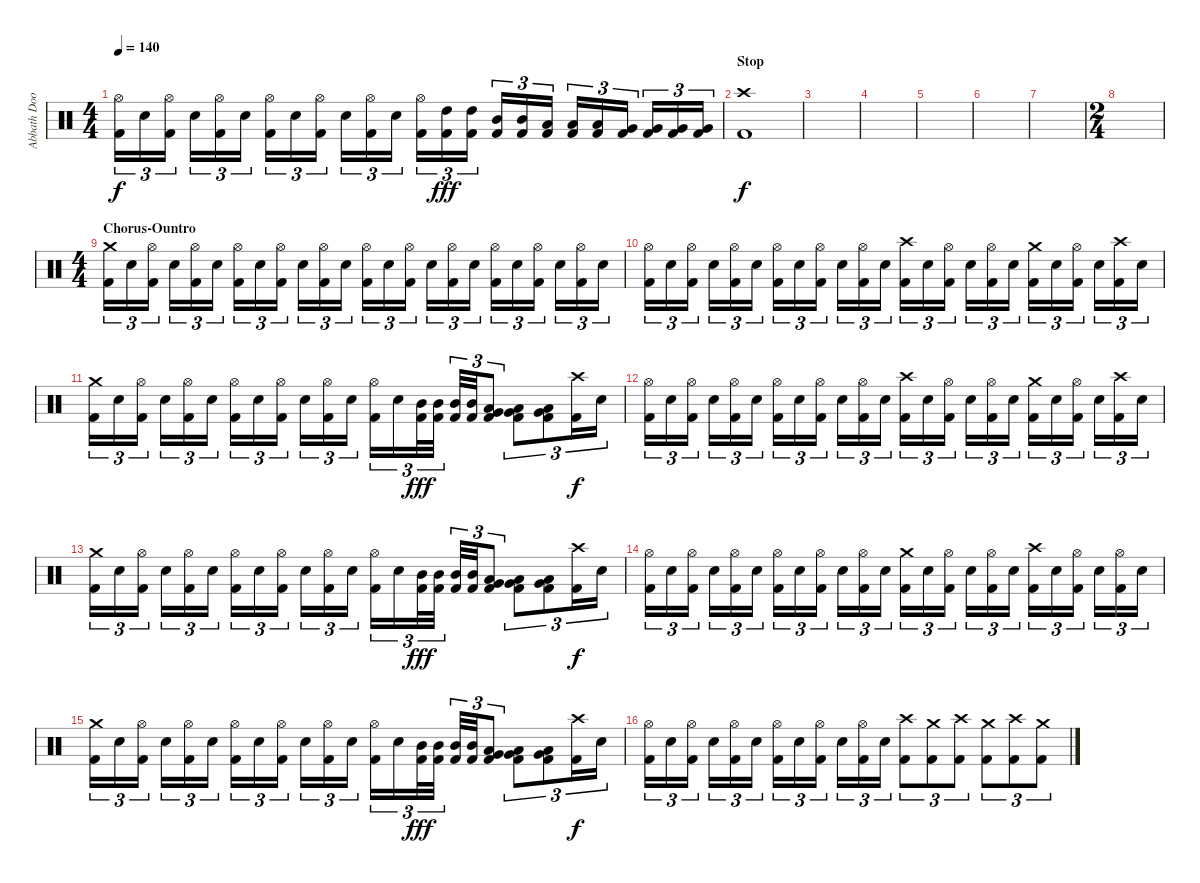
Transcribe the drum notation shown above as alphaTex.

\track ("Abbath Doom Occulta" "Abbath Doo") {instrument percussion}
\staff {score}
\articulation defaults
\ts (4 4)
\tempo 140
\clef neutral
\ks c
("Hi-Hat (open)" "Kick (hit) 2").16{tu (3 2) dy f} "Electric Snare (hit)".16{tu (3 2)} ("Hi-Hat (open)" "Kick (hit) 2").16{tu (3 2)} "Electric Snare (hit)".16{tu (3 2)} ("Hi-Hat (open)" "Kick (hit) 2").16{tu (3 2)} "Electric Snare (hit)".16{tu (3 2)} ("Hi-Hat (open)" "Kick (hit) 2").16{tu (3 2)} "Electric Snare (hit)".16{tu (3 2)} ("Hi-Hat (open)" "Kick (hit) 2").16{tu (3 2)} "Electric Snare (hit)".16{tu (3 2)} ("Hi-Hat (open)" "Kick (hit) 2").16{tu (3 2)} "Electric Snare (hit)".16{tu (3 2)} ("Hi-Hat (open)" "Kick (hit) 2").16{tu (3 2)} ("High Tom (hit)" "Kick (hit) 2").16{tu (3 2) dy fff} ("High Tom (hit)" "Kick (hit) 2").16{tu (3 2)} ("Mid Tom (hit)" "Kick (hit) 2").16{tu (3 2)} ("Mid Tom (hit)" "Kick (hit) 2").16{tu (3 2)} ("Low Tom (hit)" "Kick (hit) 2").16{tu (3 2)} ("Low Tom (hit)" "Kick (hit) 2").16{tu (3 2)} ("Low Tom (hit)" "Kick (hit) 2").16{tu (3 2)} ("Very Low Tom (hit)" "Kick (hit) 2").16{tu (3 2)} ("Very Low Tom (hit)" "Kick (hit) 2").16{tu (3 2)} ("Very Low Tom (hit)" "Kick (hit) 2").16{tu (3 2)} ("Very Low Tom (hit)" "Kick (hit) 2").16{tu (3 2)} |
\section ("" "Stop")
("Crash high (hit)" "Kick (hit) 2").1{dy f} |
|
|
|
|
|
\ts (2 4)
|
\ts (4 4)
\section ("" "Chorus-Ountro")
("Crash medium (hit)" "Kick (hit) 2").16{tu (3 2)} "Electric Snare (hit)".16{tu (3 2)} ("Hi-Hat (open)" "Kick (hit) 2").16{tu (3 2)} "Electric Snare (hit)".16{tu (3 2)} ("Hi-Hat (open)" "Kick (hit) 2").16{tu (3 2)} "Electric Snare (hit)".16{tu (3 2)} ("Hi-Hat (open)" "Kick (hit) 2").16{tu (3 2)} "Electric Snare (hit)".16{tu (3 2)} ("Hi-Hat (open)" "Kick (hit) 2").16{tu (3 2)} "Electric Snare (hit)".16{tu (3 2)} ("Hi-Hat (open)" "Kick (hit) 2").16{tu (3 2)} "Electric Snare (hit)".16{tu (3 2)} ("Hi-Hat (open)" "Kick (hit) 2").16{tu (3 2)} "Electric Snare (hit)".16{tu (3 2)} ("Hi-Hat (open)" "Kick (hit) 2").16{tu (3 2)} "Electric Snare (hit)".16{tu (3 2)} ("Hi-Hat (open)" "Kick (hit) 2").16{tu (3 2)} "Electric Snare (hit)".16{tu (3 2)} ("Hi-Hat (open)" "Kick (hit) 2").16{tu (3 2)} "Electric Snare (hit)".16{tu (3 2)} ("Hi-Hat (open)" "Kick (hit) 2").16{tu (3 2)} "Electric Snare (hit)".16{tu (3 2)} ("Hi-Hat (open)" "Kick (hit) 2").16{tu (3 2)} "Electric Snare (hit)".16{tu (3 2)} |
("Hi-Hat (open)" "Kick (hit) 2").16{tu (3 2)} "Electric Snare (hit)".16{tu (3 2)} ("Hi-Hat (open)" "Kick (hit) 2").16{tu (3 2)} "Electric Snare (hit)".16{tu (3 2)} ("Hi-Hat (open)" "Kick (hit) 2").16{tu (3 2)} "Electric Snare (hit)".16{tu (3 2)} ("Hi-Hat (open)" "Kick (hit) 2").16{tu (3 2)} "Electric Snare (hit)".16{tu (3 2)} ("Hi-Hat (open)" "Kick (hit) 2").16{tu (3 2)} "Electric Snare (hit)".16{tu (3 2)} ("Hi-Hat (open)" "Kick (hit) 2").16{tu (3 2)} "Electric Snare (hit)".16{tu (3 2)} ("Crash high (hit)" "Kick (hit) 2").16{tu (3 2)} "Electric Snare (hit)".16{tu (3 2)} ("Hi-Hat (open)" "Kick (hit) 2").16{tu (3 2)} "Electric Snare (hit)".16{tu (3 2)} ("Hi-Hat (open)" "Kick (hit) 2").16{tu (3 2)} "Electric Snare (hit)".16{tu (3 2)} ("Crash medium (hit)" "Kick (hit) 2").16{tu (3 2)} "Electric Snare (hit)".16{tu (3 2)} ("Hi-Hat (open)" "Kick (hit) 2").16{tu (3 2)} "Electric Snare (hit)".16{tu (3 2)} ("Crash high (hit)" "Kick (hit) 2").16{tu (3 2)} "Electric Snare (hit)".16{tu (3 2)} |
("Crash medium (hit)" "Kick (hit) 2").16{tu (3 2)} "Electric Snare (hit)".16{tu (3 2)} ("Hi-Hat (open)" "Kick (hit) 2").16{tu (3 2)} "Electric Snare (hit)".16{tu (3 2)} ("Hi-Hat (open)" "Kick (hit) 2").16{tu (3 2)} "Electric Snare (hit)".16{tu (3 2)} ("Hi-Hat (open)" "Kick (hit) 2").16{tu (3 2)} "Electric Snare (hit)".16{tu (3 2)} ("Hi-Hat (open)" "Kick (hit) 2").16{tu (3 2)} "Electric Snare (hit)".16{tu (3 2)} ("Hi-Hat (open)" "Kick (hit) 2").16{tu (3 2)} "Electric Snare (hit)".16{tu (3 2)} ("Hi-Hat (open)" "Kick (hit) 2").16{tu (3 2)} "Electric Snare (hit)".16{tu (3 2)} ("Mid Tom (hit)" "Kick (hit) 2").32{tu (3 2) dy fff} ("Mid Tom (hit)" "Kick (hit) 2").32{tu (3 2)} ("Mid Tom (hit)" "Kick (hit) 2").32{tu (3 2)} ("Mid Tom (hit)" "Kick (hit) 2").32{tu (3 2)} ("Very Low Tom (hit)" "Low Floor Tom (hit)" "Kick (hit) 2").8{tu (3 2)} ("Very Low Tom (hit)" "Low Floor Tom (hit)" "Kick (hit) 2").8{tu (3 2)} ("Very Low Tom (hit)" "Low Floor Tom (hit)" "Kick (hit) 2").8{tu (3 2)} ("Crash high (hit)" "Kick (hit) 2").16{tu (3 2) dy f} "Electric Snare (hit)".16{tu (3 2)} |
("Hi-Hat (open)" "Kick (hit) 2").16{tu (3 2)} "Electric Snare (hit)".16{tu (3 2)} ("Hi-Hat (open)" "Kick (hit) 2").16{tu (3 2)} "Electric Snare (hit)".16{tu (3 2)} ("Hi-Hat (open)" "Kick (hit) 2").16{tu (3 2)} "Electric Snare (hit)".16{tu (3 2)} ("Hi-Hat (open)" "Kick (hit) 2").16{tu (3 2)} "Electric Snare (hit)".16{tu (3 2)} ("Hi-Hat (open)" "Kick (hit) 2").16{tu (3 2)} "Electric Snare (hit)".16{tu (3 2)} ("Hi-Hat (open)" "Kick (hit) 2").16{tu (3 2)} "Electric Snare (hit)".16{tu (3 2)} ("Crash high (hit)" "Kick (hit) 2").16{tu (3 2)} "Electric Snare (hit)".16{tu (3 2)} ("Hi-Hat (open)" "Kick (hit) 2").16{tu (3 2)} "Electric Snare (hit)".16{tu (3 2)} ("Hi-Hat (open)" "Kick (hit) 2").16{tu (3 2)} "Electric Snare (hit)".16{tu (3 2)} ("Crash medium (hit)" "Kick (hit) 2").16{tu (3 2)} "Electric Snare (hit)".16{tu (3 2)} ("Hi-Hat (open)" "Kick (hit) 2").16{tu (3 2)} "Electric Snare (hit)".16{tu (3 2)} ("Crash high (hit)" "Kick (hit) 2").16{tu (3 2)} "Electric Snare (hit)".16{tu (3 2)} |
("Crash medium (hit)" "Kick (hit) 2").16{tu (3 2)} "Electric Snare (hit)".16{tu (3 2)} ("Hi-Hat (open)" "Kick (hit) 2").16{tu (3 2)} "Electric Snare (hit)".16{tu (3 2)} ("Hi-Hat (open)" "Kick (hit) 2").16{tu (3 2)} "Electric Snare (hit)".16{tu (3 2)} ("Hi-Hat (open)" "Kick (hit) 2").16{tu (3 2)} "Electric Snare (hit)".16{tu (3 2)} ("Hi-Hat (open)" "Kick (hit) 2").16{tu (3 2)} "Electric Snare (hit)".16{tu (3 2)} ("Hi-Hat (open)" "Kick (hit) 2").16{tu (3 2)} "Electric Snare (hit)".16{tu (3 2)} ("Hi-Hat (open)" "Kick (hit) 2").16{tu (3 2)} "Electric Snare (hit)".16{tu (3 2)} ("Mid Tom (hit)" "Kick (hit) 2").32{tu (3 2) dy fff} ("Mid Tom (hit)" "Kick (hit) 2").32{tu (3 2)} ("Mid Tom (hit)" "Kick (hit) 2").32{tu (3 2)} ("Mid Tom (hit)" "Kick (hit) 2").32{tu (3 2)} ("Very Low Tom (hit)" "Low Floor Tom (hit)" "Kick (hit) 2").8{tu (3 2)} ("Very Low Tom (hit)" "Low Floor Tom (hit)" "Kick (hit) 2").8{tu (3 2)} ("Very Low Tom (hit)" "Low Floor Tom (hit)" "Kick (hit) 2").8{tu (3 2)} ("Crash high (hit)" "Kick (hit) 2").16{tu (3 2) dy f} "Electric Snare (hit)".16{tu (3 2)} |
("Hi-Hat (open)" "Kick (hit) 2").16{tu (3 2)} "Electric Snare (hit)".16{tu (3 2)} ("Hi-Hat (open)" "Kick (hit) 2").16{tu (3 2)} "Electric Snare (hit)".16{tu (3 2)} ("Hi-Hat (open)" "Kick (hit) 2").16{tu (3 2)} "Electric Snare (hit)".16{tu (3 2)} ("Hi-Hat (open)" "Kick (hit) 2").16{tu (3 2)} "Electric Snare (hit)".16{tu (3 2)} ("Hi-Hat (open)" "Kick (hit) 2").16{tu (3 2)} "Electric Snare (hit)".16{tu (3 2)} ("Hi-Hat (open)" "Kick (hit) 2").16{tu (3 2)} "Electric Snare (hit)".16{tu (3 2)} ("Crash medium (hit)" "Kick (hit) 2").16{tu (3 2)} "Electric Snare (hit)".16{tu (3 2)} ("Hi-Hat (open)" "Kick (hit) 2").16{tu (3 2)} "Electric Snare (hit)".16{tu (3 2)} ("Hi-Hat (open)" "Kick (hit) 2").16{tu (3 2)} "Electric Snare (hit)".16{tu (3 2)} ("Crash high (hit)" "Kick (hit) 2").16{tu (3 2)} "Electric Snare (hit)".16{tu (3 2)} ("Hi-Hat (open)" "Kick (hit) 2").16{tu (3 2)} "Electric Snare (hit)".16{tu (3 2)} ("Hi-Hat (open)" "Kick (hit) 2").16{tu (3 2)} "Electric Snare (hit)".16{tu (3 2)} |
("Crash medium (hit)" "Kick (hit) 2").16{tu (3 2)} "Electric Snare (hit)".16{tu (3 2)} ("Hi-Hat (open)" "Kick (hit) 2").16{tu (3 2)} "Electric Snare (hit)".16{tu (3 2)} ("Hi-Hat (open)" "Kick (hit) 2").16{tu (3 2)} "Electric Snare (hit)".16{tu (3 2)} ("Hi-Hat (open)" "Kick (hit) 2").16{tu (3 2)} "Electric Snare (hit)".16{tu (3 2)} ("Hi-Hat (open)" "Kick (hit) 2").16{tu (3 2)} "Electric Snare (hit)".16{tu (3 2)} ("Hi-Hat (open)" "Kick (hit) 2").16{tu (3 2)} "Electric Snare (hit)".16{tu (3 2)} ("Hi-Hat (open)" "Kick (hit) 2").16{tu (3 2)} "Electric Snare (hit)".16{tu (3 2)} ("Mid Tom (hit)" "Kick (hit) 2").32{tu (3 2) dy fff} ("Mid Tom (hit)" "Kick (hit) 2").32{tu (3 2)} ("Mid Tom (hit)" "Kick (hit) 2").32{tu (3 2)} ("Mid Tom (hit)" "Kick (hit) 2").32{tu (3 2)} ("Very Low Tom (hit)" "Low Floor Tom (hit)" "Kick (hit) 2").8{tu (3 2)} ("Very Low Tom (hit)" "Low Floor Tom (hit)" "Kick (hit) 2").8{tu (3 2)} ("Very Low Tom (hit)" "Low Floor Tom (hit)" "Kick (hit) 2").8{tu (3 2)} ("Crash high (hit)" "Kick (hit) 2").16{tu (3 2) dy f} "Electric Snare (hit)".16{tu (3 2)} |
("Hi-Hat (open)" "Kick (hit) 2").16{tu (3 2)} "Electric Snare (hit)".16{tu (3 2)} ("Hi-Hat (open)" "Kick (hit) 2").16{tu (3 2)} "Electric Snare (hit)".16{tu (3 2)} ("Hi-Hat (open)" "Kick (hit) 2").16{tu (3 2)} "Electric Snare (hit)".16{tu (3 2)} ("Hi-Hat (open)" "Kick (hit) 2").16{tu (3 2)} "Electric Snare (hit)".16{tu (3 2)} ("Hi-Hat (open)" "Kick (hit) 2").16{tu (3 2)} "Electric Snare (hit)".16{tu (3 2)} ("Hi-Hat (open)" "Kick (hit) 2").16{tu (3 2)} "Electric Snare (hit)".16{tu (3 2)} ("Crash high (hit)" "Kick (hit) 2").8{tu (3 2)} ("Crash medium (hit)" "Kick (hit) 2").8{tu (3 2)} ("Crash high (hit)" "Kick (hit) 2").8{tu (3 2)} ("Crash medium (hit)" "Kick (hit) 2").8{tu (3 2)} ("Crash high (hit)" "Kick (hit) 2").8{tu (3 2)} ("Crash medium (hit)" "Kick (hit) 2").8{tu (3 2)}
